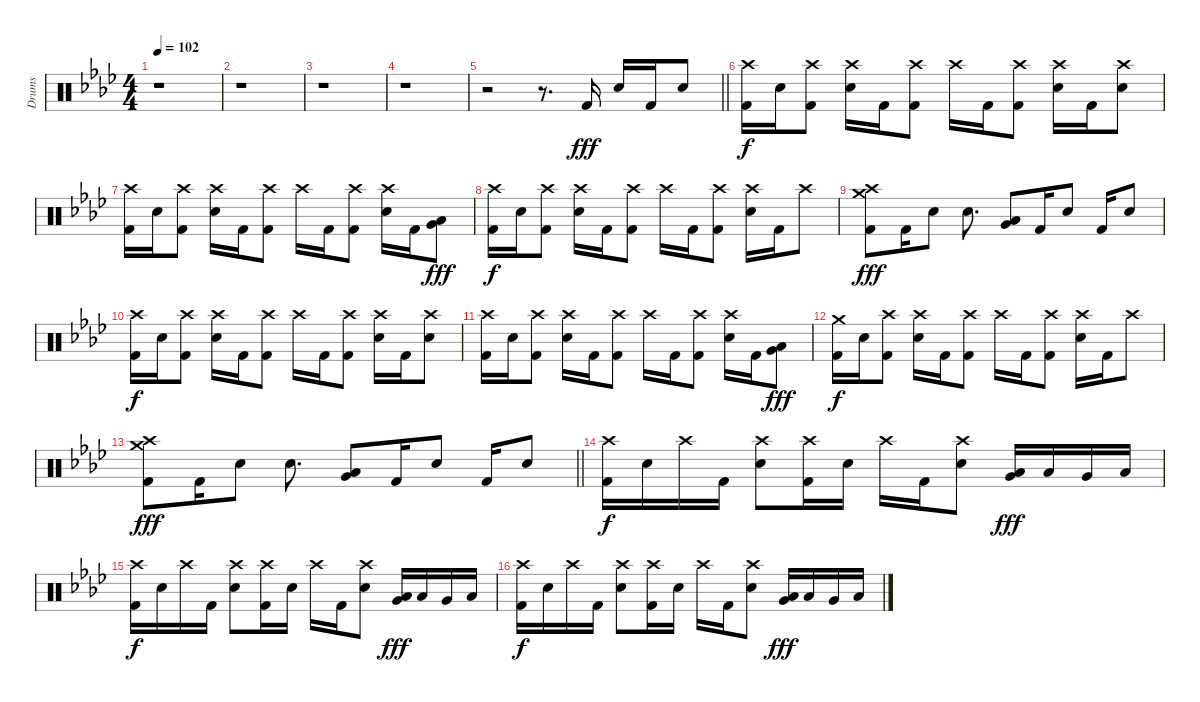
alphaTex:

\track ("Drums" "Drums") {instrument percussion}
\staff {score}
\articulation defaults
\ts (4 4)
\tempo 102
\clef neutral
\ks fminor
r.1{dy fff} |
r.1 |
r.1 |
r.1 |
\barLineRight lightlight
r.2 r.8{d} "Kick (hit) 2".16 "Snare (hit) 2".16 "Kick (hit) 2".16 "Snare (hit) 2".8 |
("Crash high (hit)" "Kick (hit) 2").16{dy f} "Snare (hit) 2".16 ("Crash high (hit)" "Kick (hit) 2").8 ("Crash high (hit)" "Snare (hit) 2").16 "Kick (hit) 2".16 ("Crash high (hit)" "Kick (hit) 2").8 "Crash high (hit)".16 "Kick (hit) 2".16 ("Crash high (hit)" "Kick (hit) 2").8 ("Crash high (hit)" "Snare (hit) 2").16 "Kick (hit) 2".16 ("Crash high (hit)" "Snare (hit) 2").8 |
("Crash high (hit)" "Kick (hit) 2").16 "Snare (hit) 2".16 ("Crash high (hit)" "Kick (hit) 2").8 ("Crash high (hit)" "Snare (hit) 2").16 "Kick (hit) 2".16 ("Crash high (hit)" "Kick (hit) 2").8 "Crash high (hit)".16 "Kick (hit) 2".16 ("Crash high (hit)" "Kick (hit) 2").8 ("Crash high (hit)" "Snare (hit) 2").16 "Kick (hit) 2".16 ("Low Tom (hit)" "Very Low Tom (hit)").8{dy fff} |
("Crash high (hit)" "Kick (hit) 2").16{dy f} "Snare (hit) 2".16 ("Crash high (hit)" "Kick (hit) 2").8 ("Crash high (hit)" "Snare (hit) 2").16 "Kick (hit) 2".16 ("Crash high (hit)" "Kick (hit) 2").8 "Crash high (hit)".16 "Kick (hit) 2".16 ("Crash high (hit)" "Kick (hit) 2").8 ("Crash high (hit)" "Snare (hit) 2").16 "Kick (hit) 2".16 "Crash high (hit)".8 |
("Crash high (hit)" "Crash medium (hit)" "Kick (hit) 2").8{dy fff} "Kick (hit) 2".16 "Snare (hit) 2".8 "Snare (hit) 2".8{d} ("Low Tom (hit)" "Very Low Tom (hit)").8 "Kick (hit) 2".16 "Snare (hit) 2".8 "Kick (hit) 2".16 "Snare (hit) 2".8 |
("Crash high (hit)" "Kick (hit) 2").16{dy f} "Snare (hit) 2".16 ("Crash high (hit)" "Kick (hit) 2").8 ("Crash high (hit)" "Snare (hit) 2").16 "Kick (hit) 2".16 ("Crash high (hit)" "Kick (hit) 2").8 "Crash high (hit)".16 "Kick (hit) 2".16 ("Crash high (hit)" "Kick (hit) 2").8 ("Crash high (hit)" "Snare (hit) 2").16 "Kick (hit) 2".16 ("Crash high (hit)" "Snare (hit) 2").8 |
("Crash high (hit)" "Kick (hit) 2").16 "Snare (hit) 2".16 ("Crash high (hit)" "Kick (hit) 2").8 ("Crash high (hit)" "Snare (hit) 2").16 "Kick (hit) 2".16 ("Crash high (hit)" "Kick (hit) 2").8 "Crash high (hit)".16 "Kick (hit) 2".16 ("Crash high (hit)" "Kick (hit) 2").8 ("Crash high (hit)" "Snare (hit) 2").16 "Kick (hit) 2".16 ("Low Tom (hit)" "Very Low Tom (hit)").8{dy fff} |
("Crash medium (hit)" "Kick (hit) 2").16{dy f} "Snare (hit) 2".16 ("Crash high (hit)" "Kick (hit) 2").8 ("Crash high (hit)" "Snare (hit) 2").16 "Kick (hit) 2".16 ("Crash high (hit)" "Kick (hit) 2").8 "Crash high (hit)".16 "Kick (hit) 2".16 ("Crash high (hit)" "Kick (hit) 2").8 ("Crash high (hit)" "Snare (hit) 2").16 "Kick (hit) 2".16 "Crash high (hit)".8 |
\barLineRight lightlight
("Crash high (hit)" "Crash medium (hit)" "Kick (hit) 2").8{dy fff} "Kick (hit) 2".16 "Snare (hit) 2".8 "Snare (hit) 2".8{d} ("Low Tom (hit)" "Very Low Tom (hit)").8 "Kick (hit) 2".16 "Snare (hit) 2".8 "Kick (hit) 2".16 "Snare (hit) 2".8 |
("Crash high (hit)" "Kick (hit) 2").16{dy f} "Snare (hit) 2".16 "Crash high (hit)".16 "Kick (hit) 2".16 ("Crash high (hit)" "Snare (hit) 2").8 ("Crash high (hit)" "Kick (hit) 2").16 "Snare (hit) 2".16 "Crash high (hit)".16 "Kick (hit) 2".16 ("Crash high (hit)" "Snare (hit) 2").8 ("Low Tom (hit)" "Very Low Tom (hit)").16{dy fff} "Low Tom (hit)".16 "Very Low Tom (hit)".16 "Low Floor Tom (hit)".16 |
("Crash high (hit)" "Kick (hit) 2").16{dy f} "Snare (hit) 2".16 "Crash high (hit)".16 "Kick (hit) 2".16 ("Crash high (hit)" "Snare (hit) 2").8 ("Crash high (hit)" "Kick (hit) 2").16 "Snare (hit) 2".16 "Crash high (hit)".16 "Kick (hit) 2".16 ("Crash high (hit)" "Snare (hit) 2").8 ("Low Tom (hit)" "Very Low Tom (hit)").16{dy fff} "Low Tom (hit)".16 "Very Low Tom (hit)".16 "Low Floor Tom (hit)".16 |
("Crash high (hit)" "Kick (hit) 2").16{dy f} "Snare (hit) 2".16 "Crash high (hit)".16 "Kick (hit) 2".16 ("Crash high (hit)" "Snare (hit) 2").8 ("Crash high (hit)" "Kick (hit) 2").16 "Snare (hit) 2".16 "Crash high (hit)".16 "Kick (hit) 2".16 ("Crash high (hit)" "Snare (hit) 2").8 ("Low Tom (hit)" "Very Low Tom (hit)").16{dy fff} "Low Tom (hit)".16 "Very Low Tom (hit)".16 "Low Floor Tom (hit)".16
